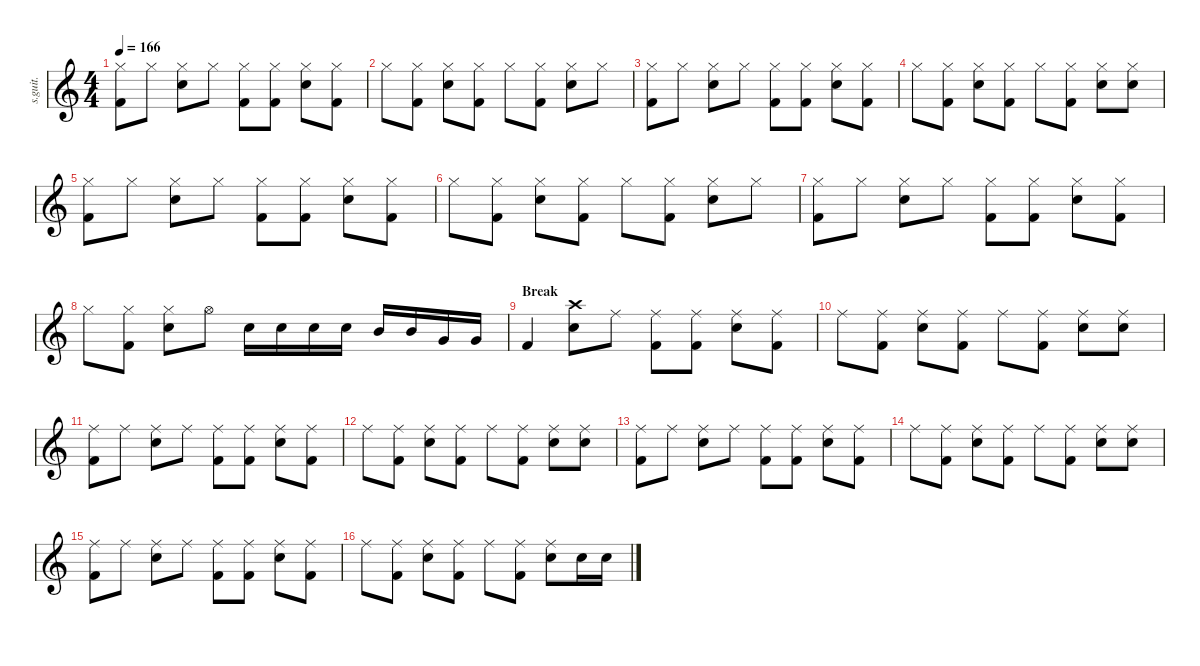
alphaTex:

\defaultSystemsLayout 4
\hideDynamics
\bracketExtendMode nobrackets
\track ("Phil Selway" "s.guit.") {instrument percussion}
\staff {score}
\articulation defaults
\ts (4 4)
\tempo 166
\clef g2
\ks c
("Hi-Hat (closed)" "Kick (hit) 2").8{lyrics (0 "") lyrics (1 "") lyrics (2 "") lyrics (3 "") lyrics (4 "") dy f} "Hi-Hat (closed)".8{lyrics (0 "") lyrics (1 "") lyrics (2 "") lyrics (3 "") lyrics (4 "") dy mp} ("Hi-Hat (closed)" "Electric Snare (hit)").8{lyrics (0 "") lyrics (1 "") lyrics (2 "") lyrics (3 "") lyrics (4 "") dy f} "Hi-Hat (closed)".8{lyrics (0 "") lyrics (1 "") lyrics (2 "") lyrics (3 "") lyrics (4 "") dy mp} ("Hi-Hat (closed)" "Kick (hit) 2").8{lyrics (0 "") lyrics (1 "") lyrics (2 "") lyrics (3 "") lyrics (4 "") dy f} ("Hi-Hat (closed)" "Kick (hit) 2").8{lyrics (0 "") lyrics (1 "") lyrics (2 "") lyrics (3 "") lyrics (4 "")} ("Hi-Hat (closed)" "Electric Snare (hit)").8{lyrics (0 "") lyrics (1 "") lyrics (2 "") lyrics (3 "") lyrics (4 "")} ("Hi-Hat (closed)" "Kick (hit) 2").8{lyrics (0 "") lyrics (1 "") lyrics (2 "") lyrics (3 "") lyrics (4 "")} |
"Hi-Hat (closed)".8{lyrics (0 "") lyrics (1 "") lyrics (2 "") lyrics (3 "") lyrics (4 "") dy ff} ("Hi-Hat (closed)" "Kick (hit) 2").8{lyrics (0 "") lyrics (1 "") lyrics (2 "") lyrics (3 "") lyrics (4 "") dy f} ("Hi-Hat (closed)" "Electric Snare (hit)").8{lyrics (0 "") lyrics (1 "") lyrics (2 "") lyrics (3 "") lyrics (4 "")} ("Hi-Hat (closed)" "Kick (hit) 2").8{lyrics (0 "") lyrics (1 "") lyrics (2 "") lyrics (3 "") lyrics (4 "")} "Hi-Hat (closed)".8{lyrics (0 "") lyrics (1 "") lyrics (2 "") lyrics (3 "") lyrics (4 "") dy ff} ("Hi-Hat (closed)" "Kick (hit) 2").8{lyrics (0 "") lyrics (1 "") lyrics (2 "") lyrics (3 "") lyrics (4 "") dy f} ("Hi-Hat (closed)" "Electric Snare (hit)").8{lyrics (0 "") lyrics (1 "") lyrics (2 "") lyrics (3 "") lyrics (4 "")} "Hi-Hat (closed)".8{lyrics (0 "") lyrics (1 "") lyrics (2 "") lyrics (3 "") lyrics (4 "") dy mp} |
("Hi-Hat (closed)" "Kick (hit) 2").8{lyrics (0 "") lyrics (1 "") lyrics (2 "") lyrics (3 "") lyrics (4 "") dy f} "Hi-Hat (closed)".8{lyrics (0 "") lyrics (1 "") lyrics (2 "") lyrics (3 "") lyrics (4 "") dy mp} ("Hi-Hat (closed)" "Electric Snare (hit)").8{lyrics (0 "") lyrics (1 "") lyrics (2 "") lyrics (3 "") lyrics (4 "") dy f} "Hi-Hat (closed)".8{lyrics (0 "") lyrics (1 "") lyrics (2 "") lyrics (3 "") lyrics (4 "") dy mp} ("Hi-Hat (closed)" "Kick (hit) 2").8{lyrics (0 "") lyrics (1 "") lyrics (2 "") lyrics (3 "") lyrics (4 "") dy f} ("Hi-Hat (closed)" "Kick (hit) 2").8{lyrics (0 "") lyrics (1 "") lyrics (2 "") lyrics (3 "") lyrics (4 "")} ("Hi-Hat (closed)" "Electric Snare (hit)").8{lyrics (0 "") lyrics (1 "") lyrics (2 "") lyrics (3 "") lyrics (4 "")} ("Hi-Hat (closed)" "Kick (hit) 2").8{lyrics (0 "") lyrics (1 "") lyrics (2 "") lyrics (3 "") lyrics (4 "")} |
"Hi-Hat (closed)".8{lyrics (0 "") lyrics (1 "") lyrics (2 "") lyrics (3 "") lyrics (4 "") dy ff} ("Hi-Hat (closed)" "Kick (hit) 2").8{lyrics (0 "") lyrics (1 "") lyrics (2 "") lyrics (3 "") lyrics (4 "") dy f} ("Hi-Hat (closed)" "Electric Snare (hit)").8{lyrics (0 "") lyrics (1 "") lyrics (2 "") lyrics (3 "") lyrics (4 "")} ("Hi-Hat (closed)" "Kick (hit) 2").8{lyrics (0 "") lyrics (1 "") lyrics (2 "") lyrics (3 "") lyrics (4 "")} "Hi-Hat (closed)".8{lyrics (0 "") lyrics (1 "") lyrics (2 "") lyrics (3 "") lyrics (4 "") dy ff} ("Hi-Hat (closed)" "Kick (hit) 2").8{lyrics (0 "") lyrics (1 "") lyrics (2 "") lyrics (3 "") lyrics (4 "") dy f} ("Hi-Hat (closed)" "Electric Snare (hit)").8{lyrics (0 "") lyrics (1 "") lyrics (2 "") lyrics (3 "") lyrics (4 "")} ("Hi-Hat (closed)" "Snare (hit) 2").8{lyrics (0 "") lyrics (1 "") lyrics (2 "") lyrics (3 "") lyrics (4 "")} |
("Hi-Hat (closed)" "Kick (hit) 2").8{lyrics (0 "") lyrics (1 "") lyrics (2 "") lyrics (3 "") lyrics (4 "")} "Hi-Hat (closed)".8{lyrics (0 "") lyrics (1 "") lyrics (2 "") lyrics (3 "") lyrics (4 "") dy mp} ("Hi-Hat (closed)" "Electric Snare (hit)").8{lyrics (0 "") lyrics (1 "") lyrics (2 "") lyrics (3 "") lyrics (4 "") dy f} "Hi-Hat (closed)".8{lyrics (0 "") lyrics (1 "") lyrics (2 "") lyrics (3 "") lyrics (4 "") dy mp} ("Hi-Hat (closed)" "Kick (hit) 2").8{lyrics (0 "") lyrics (1 "") lyrics (2 "") lyrics (3 "") lyrics (4 "") dy f} ("Hi-Hat (closed)" "Kick (hit) 2").8{lyrics (0 "") lyrics (1 "") lyrics (2 "") lyrics (3 "") lyrics (4 "")} ("Hi-Hat (closed)" "Electric Snare (hit)").8{lyrics (0 "") lyrics (1 "") lyrics (2 "") lyrics (3 "") lyrics (4 "")} ("Hi-Hat (closed)" "Kick (hit) 2").8{lyrics (0 "") lyrics (1 "") lyrics (2 "") lyrics (3 "") lyrics (4 "")} |
"Hi-Hat (closed)".8{lyrics (0 "") lyrics (1 "") lyrics (2 "") lyrics (3 "") lyrics (4 "") dy ff} ("Hi-Hat (closed)" "Kick (hit) 2").8{lyrics (0 "") lyrics (1 "") lyrics (2 "") lyrics (3 "") lyrics (4 "") dy f} ("Hi-Hat (closed)" "Electric Snare (hit)").8{lyrics (0 "") lyrics (1 "") lyrics (2 "") lyrics (3 "") lyrics (4 "")} ("Hi-Hat (closed)" "Kick (hit) 2").8{lyrics (0 "") lyrics (1 "") lyrics (2 "") lyrics (3 "") lyrics (4 "")} "Hi-Hat (closed)".8{lyrics (0 "") lyrics (1 "") lyrics (2 "") lyrics (3 "") lyrics (4 "") dy ff} ("Hi-Hat (closed)" "Kick (hit) 2").8{lyrics (0 "") lyrics (1 "") lyrics (2 "") lyrics (3 "") lyrics (4 "") dy f} ("Hi-Hat (closed)" "Electric Snare (hit)").8{lyrics (0 "") lyrics (1 "") lyrics (2 "") lyrics (3 "") lyrics (4 "")} "Hi-Hat (closed)".8{lyrics (0 "") lyrics (1 "") lyrics (2 "") lyrics (3 "") lyrics (4 "") dy mp} |
("Hi-Hat (closed)" "Kick (hit) 2").8{lyrics (0 "") lyrics (1 "") lyrics (2 "") lyrics (3 "") lyrics (4 "") dy f} "Hi-Hat (closed)".8{lyrics (0 "") lyrics (1 "") lyrics (2 "") lyrics (3 "") lyrics (4 "") dy mp} ("Hi-Hat (closed)" "Electric Snare (hit)").8{lyrics (0 "") lyrics (1 "") lyrics (2 "") lyrics (3 "") lyrics (4 "") dy f} "Hi-Hat (closed)".8{lyrics (0 "") lyrics (1 "") lyrics (2 "") lyrics (3 "") lyrics (4 "") dy mp} ("Hi-Hat (closed)" "Kick (hit) 2").8{lyrics (0 "") lyrics (1 "") lyrics (2 "") lyrics (3 "") lyrics (4 "") dy f} ("Hi-Hat (closed)" "Kick (hit) 2").8{lyrics (0 "") lyrics (1 "") lyrics (2 "") lyrics (3 "") lyrics (4 "")} ("Hi-Hat (closed)" "Electric Snare (hit)").8{lyrics (0 "") lyrics (1 "") lyrics (2 "") lyrics (3 "") lyrics (4 "")} ("Hi-Hat (closed)" "Kick (hit) 2").8{lyrics (0 "") lyrics (1 "") lyrics (2 "") lyrics (3 "") lyrics (4 "")} |
"Hi-Hat (closed)".8{lyrics (0 "") lyrics (1 "") lyrics (2 "") lyrics (3 "") lyrics (4 "") dy ff} ("Hi-Hat (closed)" "Kick (hit) 2").8{lyrics (0 "") lyrics (1 "") lyrics (2 "") lyrics (3 "") lyrics (4 "") dy f} ("Hi-Hat (closed)" "Electric Snare (hit)").8{lyrics (0 "") lyrics (1 "") lyrics (2 "") lyrics (3 "") lyrics (4 "")} "Hi-Hat (open)".8{lyrics (0 "") lyrics (1 "") lyrics (2 "") lyrics (3 "") lyrics (4 "")} "Snare (hit) 2".16{lyrics (0 "") lyrics (1 "") lyrics (2 "") lyrics (3 "") lyrics (4 "")} "Snare (hit) 2".16{lyrics (0 "") lyrics (1 "") lyrics (2 "") lyrics (3 "") lyrics (4 "")} "Snare (hit) 2".16{lyrics (0 "") lyrics (1 "") lyrics (2 "") lyrics (3 "") lyrics (4 "")} "Snare (hit) 2".16{lyrics (0 "") lyrics (1 "") lyrics (2 "") lyrics (3 "") lyrics (4 "")} "Mid Tom (hit)".16{lyrics (0 "") lyrics (1 "") lyrics (2 "") lyrics (3 "") lyrics (4 "")} "Mid Tom (hit)".16{lyrics (0 "") lyrics (1 "") lyrics (2 "") lyrics (3 "") lyrics (4 "")} "Very Low Tom (hit)".16{lyrics (0 "") lyrics (1 "") lyrics (2 "") lyrics (3 "") lyrics (4 "")} "Very Low Tom (hit)".16{lyrics (0 "") lyrics (1 "") lyrics (2 "") lyrics (3 "") lyrics (4 "")} |
\section ("" "Break")
"Kick (hit) 2".4{lyrics (0 "") lyrics (1 "") lyrics (2 "") lyrics (3 "") lyrics (4 "")} ("Crash high (hit)" "Electric Snare (hit)").8{lyrics (0 "") lyrics (1 "") lyrics (2 "") lyrics (3 "") lyrics (4 "")} "Ride (middle)".8{lyrics (0 "") lyrics (1 "") lyrics (2 "") lyrics (3 "") lyrics (4 "")} ("Ride (middle)" "Kick (hit) 2").8{lyrics (0 "") lyrics (1 "") lyrics (2 "") lyrics (3 "") lyrics (4 "")} ("Ride (middle)" "Kick (hit) 2").8{lyrics (0 "") lyrics (1 "") lyrics (2 "") lyrics (3 "") lyrics (4 "")} ("Ride (middle)" "Electric Snare (hit)").8{lyrics (0 "") lyrics (1 "") lyrics (2 "") lyrics (3 "") lyrics (4 "")} ("Ride (middle)" "Kick (hit) 2").8{lyrics (0 "") lyrics (1 "") lyrics (2 "") lyrics (3 "") lyrics (4 "")} |
"Ride (middle)".8{lyrics (0 "") lyrics (1 "") lyrics (2 "") lyrics (3 "") lyrics (4 "")} ("Ride (middle)" "Kick (hit) 2").8{lyrics (0 "") lyrics (1 "") lyrics (2 "") lyrics (3 "") lyrics (4 "")} ("Ride (middle)" "Electric Snare (hit)").8{lyrics (0 "") lyrics (1 "") lyrics (2 "") lyrics (3 "") lyrics (4 "")} ("Ride (middle)" "Kick (hit) 2").8{lyrics (0 "") lyrics (1 "") lyrics (2 "") lyrics (3 "") lyrics (4 "")} "Ride (middle)".8{lyrics (0 "") lyrics (1 "") lyrics (2 "") lyrics (3 "") lyrics (4 "")} ("Ride (middle)" "Kick (hit) 2").8{lyrics (0 "") lyrics (1 "") lyrics (2 "") lyrics (3 "") lyrics (4 "")} ("Ride (middle)" "Electric Snare (hit)").8{lyrics (0 "") lyrics (1 "") lyrics (2 "") lyrics (3 "") lyrics (4 "")} ("Ride (middle)" "Electric Snare (hit)").8{lyrics (0 "") lyrics (1 "") lyrics (2 "") lyrics (3 "") lyrics (4 "")} |
("Ride (middle)" "Kick (hit) 2").8{lyrics (0 "") lyrics (1 "") lyrics (2 "") lyrics (3 "") lyrics (4 "")} "Ride (middle)".8{lyrics (0 "") lyrics (1 "") lyrics (2 "") lyrics (3 "") lyrics (4 "")} ("Ride (middle)" "Electric Snare (hit)").8{lyrics (0 "") lyrics (1 "") lyrics (2 "") lyrics (3 "") lyrics (4 "")} "Ride (middle)".8{lyrics (0 "") lyrics (1 "") lyrics (2 "") lyrics (3 "") lyrics (4 "")} ("Ride (middle)" "Kick (hit) 2").8{lyrics (0 "") lyrics (1 "") lyrics (2 "") lyrics (3 "") lyrics (4 "")} ("Ride (middle)" "Kick (hit) 2").8{lyrics (0 "") lyrics (1 "") lyrics (2 "") lyrics (3 "") lyrics (4 "")} ("Ride (middle)" "Electric Snare (hit)").8{lyrics (0 "") lyrics (1 "") lyrics (2 "") lyrics (3 "") lyrics (4 "")} ("Ride (middle)" "Kick (hit) 2").8{lyrics (0 "") lyrics (1 "") lyrics (2 "") lyrics (3 "") lyrics (4 "")} |
"Ride (middle)".8{lyrics (0 "") lyrics (1 "") lyrics (2 "") lyrics (3 "") lyrics (4 "")} ("Ride (middle)" "Kick (hit) 2").8{lyrics (0 "") lyrics (1 "") lyrics (2 "") lyrics (3 "") lyrics (4 "")} ("Ride (middle)" "Electric Snare (hit)").8{lyrics (0 "") lyrics (1 "") lyrics (2 "") lyrics (3 "") lyrics (4 "")} ("Ride (middle)" "Kick (hit) 2").8{lyrics (0 "") lyrics (1 "") lyrics (2 "") lyrics (3 "") lyrics (4 "")} "Ride (middle)".8{lyrics (0 "") lyrics (1 "") lyrics (2 "") lyrics (3 "") lyrics (4 "")} ("Ride (middle)" "Kick (hit) 2").8{lyrics (0 "") lyrics (1 "") lyrics (2 "") lyrics (3 "") lyrics (4 "")} ("Ride (middle)" "Electric Snare (hit)").8{lyrics (0 "") lyrics (1 "") lyrics (2 "") lyrics (3 "") lyrics (4 "")} ("Ride (middle)" "Electric Snare (hit)").8{lyrics (0 "") lyrics (1 "") lyrics (2 "") lyrics (3 "") lyrics (4 "")} |
("Ride (middle)" "Kick (hit) 2").8{lyrics (0 "") lyrics (1 "") lyrics (2 "") lyrics (3 "") lyrics (4 "")} "Ride (middle)".8{lyrics (0 "") lyrics (1 "") lyrics (2 "") lyrics (3 "") lyrics (4 "")} ("Ride (middle)" "Electric Snare (hit)").8{lyrics (0 "") lyrics (1 "") lyrics (2 "") lyrics (3 "") lyrics (4 "")} "Ride (middle)".8{lyrics (0 "") lyrics (1 "") lyrics (2 "") lyrics (3 "") lyrics (4 "")} ("Ride (middle)" "Kick (hit) 2").8{lyrics (0 "") lyrics (1 "") lyrics (2 "") lyrics (3 "") lyrics (4 "")} ("Ride (middle)" "Kick (hit) 2").8{lyrics (0 "") lyrics (1 "") lyrics (2 "") lyrics (3 "") lyrics (4 "")} ("Ride (middle)" "Electric Snare (hit)").8{lyrics (0 "") lyrics (1 "") lyrics (2 "") lyrics (3 "") lyrics (4 "")} ("Ride (middle)" "Kick (hit) 2").8{lyrics (0 "") lyrics (1 "") lyrics (2 "") lyrics (3 "") lyrics (4 "")} |
"Ride (middle)".8{lyrics (0 "") lyrics (1 "") lyrics (2 "") lyrics (3 "") lyrics (4 "")} ("Ride (middle)" "Kick (hit) 2").8{lyrics (0 "") lyrics (1 "") lyrics (2 "") lyrics (3 "") lyrics (4 "")} ("Ride (middle)" "Electric Snare (hit)").8{lyrics (0 "") lyrics (1 "") lyrics (2 "") lyrics (3 "") lyrics (4 "")} ("Ride (middle)" "Kick (hit) 2").8{lyrics (0 "") lyrics (1 "") lyrics (2 "") lyrics (3 "") lyrics (4 "")} "Ride (middle)".8{lyrics (0 "") lyrics (1 "") lyrics (2 "") lyrics (3 "") lyrics (4 "")} ("Ride (middle)" "Kick (hit) 2").8{lyrics (0 "") lyrics (1 "") lyrics (2 "") lyrics (3 "") lyrics (4 "")} ("Ride (middle)" "Electric Snare (hit)").8{lyrics (0 "") lyrics (1 "") lyrics (2 "") lyrics (3 "") lyrics (4 "")} ("Ride (middle)" "Electric Snare (hit)").8{lyrics (0 "") lyrics (1 "") lyrics (2 "") lyrics (3 "") lyrics (4 "")} |
("Ride (middle)" "Kick (hit) 2").8{lyrics (0 "") lyrics (1 "") lyrics (2 "") lyrics (3 "") lyrics (4 "")} "Ride (middle)".8{lyrics (0 "") lyrics (1 "") lyrics (2 "") lyrics (3 "") lyrics (4 "")} ("Ride (middle)" "Electric Snare (hit)").8{lyrics (0 "") lyrics (1 "") lyrics (2 "") lyrics (3 "") lyrics (4 "")} "Ride (middle)".8{lyrics (0 "") lyrics (1 "") lyrics (2 "") lyrics (3 "") lyrics (4 "")} ("Ride (middle)" "Kick (hit) 2").8{lyrics (0 "") lyrics (1 "") lyrics (2 "") lyrics (3 "") lyrics (4 "")} ("Ride (middle)" "Kick (hit) 2").8{lyrics (0 "") lyrics (1 "") lyrics (2 "") lyrics (3 "") lyrics (4 "")} ("Ride (middle)" "Electric Snare (hit)").8{lyrics (0 "") lyrics (1 "") lyrics (2 "") lyrics (3 "") lyrics (4 "")} ("Ride (middle)" "Kick (hit) 2").8{lyrics (0 "") lyrics (1 "") lyrics (2 "") lyrics (3 "") lyrics (4 "")} |
"Ride (middle)".8{lyrics (0 "") lyrics (1 "") lyrics (2 "") lyrics (3 "") lyrics (4 "")} ("Ride (middle)" "Kick (hit) 2").8{lyrics (0 "") lyrics (1 "") lyrics (2 "") lyrics (3 "") lyrics (4 "")} ("Ride (middle)" "Electric Snare (hit)").8{lyrics (0 "") lyrics (1 "") lyrics (2 "") lyrics (3 "") lyrics (4 "")} ("Ride (middle)" "Kick (hit) 2").8{lyrics (0 "") lyrics (1 "") lyrics (2 "") lyrics (3 "") lyrics (4 "")} "Ride (middle)".8{lyrics (0 "") lyrics (1 "") lyrics (2 "") lyrics (3 "") lyrics (4 "")} ("Ride (middle)" "Kick (hit) 2").8{lyrics (0 "") lyrics (1 "") lyrics (2 "") lyrics (3 "") lyrics (4 "")} ("Ride (middle)" "Electric Snare (hit)").8{lyrics (0 "") lyrics (1 "") lyrics (2 "") lyrics (3 "") lyrics (4 "")} "Snare (hit) 2".16{lyrics (0 "") lyrics (1 "") lyrics (2 "") lyrics (3 "") lyrics (4 "") dy mf} "Snare (hit) 2".16{lyrics (0 "") lyrics (1 "") lyrics (2 "") lyrics (3 "") lyrics (4 "")}
